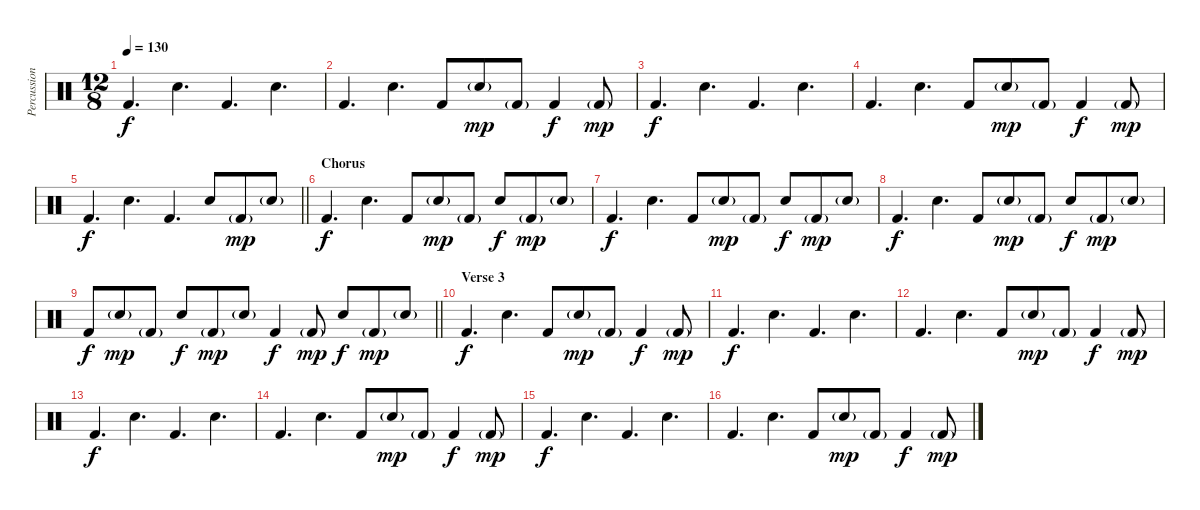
\track ("Percussion" "Percussion") {instrument percussion}
\staff {score}
\articulation defaults
\ts (12 8)
\tempo 130
\clef neutral
\ks c "Kick (hit) 2".4{d dy f} "Snare (hit) 2".4{d} "Kick (hit) 2".4{d} "Snare (hit) 2".4{d}
|
"Kick (hit) 2".4{d} "Snare (hit) 2".4{d} "Kick (hit) 2".8 "Snare (hit) 2"{g}.8{dy mp} "Kick (hit) 2"{g}.8 "Kick (hit) 2".4{dy f} "Kick (hit) 2"{g}.8{dy mp} |
"Kick (hit) 2".4{d dy f} "Snare (hit) 2".4{d} "Kick (hit) 2".4{d} "Snare (hit) 2".4{d} |
"Kick (hit) 2".4{d} "Snare (hit) 2".4{d} "Kick (hit) 2".8 "Snare (hit) 2"{g}.8{dy mp} "Kick (hit) 2"{g}.8 "Kick (hit) 2".4{dy f} "Kick (hit) 2"{g}.8{dy mp} |
\barLineRight lightlight "Kick (hit) 2".4{d dy f} "Snare (hit) 2".4{d} "Kick (hit) 2".4{d} "Snare (hit) 2".8 "Kick (hit) 2"{g}.8{dy mp} "Snare (hit) 2"{g}.8
|
\section ("" "Chorus")
"Kick (hit) 2".4{d dy f} "Snare (hit) 2".4{d} "Kick (hit) 2".8 "Snare (hit) 2"{g}.8{dy mp} "Kick (hit) 2"{g}.8 "Snare (hit) 2".8{dy f} "Kick (hit) 2"{g}.8{dy mp} "Snare (hit) 2"{g}.8 |
"Kick (hit) 2".4{d dy f} "Snare (hit) 2".4{d} "Kick (hit) 2".8 "Snare (hit) 2"{g}.8{dy mp} "Kick (hit) 2"{g}.8 "Snare (hit) 2".8{dy f} "Kick (hit) 2"{g}.8{dy mp} "Snare (hit) 2"{g}.8 |
"Kick (hit) 2".4{d dy f} "Snare (hit) 2".4{d} "Kick (hit) 2".8 "Snare (hit) 2"{g}.8{dy mp} "Kick (hit) 2"{g}.8 "Snare (hit) 2".8{dy f} "Kick (hit) 2"{g}.8{dy mp} "Snare (hit) 2"{g}.8 |
\barLineRight lightlight "Kick (hit) 2".8{dy f} "Snare (hit) 2"{g}.8{dy mp} "Kick (hit) 2"{g}.8 "Snare (hit) 2".8{dy f} "Kick (hit) 2"{g}.8{dy mp} "Snare (hit) 2"{g}.8 "Kick (hit) 2".4{dy f} "Kick (hit) 2"{g}.8{dy mp} "Snare (hit) 2".8{dy f} "Kick (hit) 2"{g}.8{dy mp} "Snare (hit) 2"{g}.8
|
\section ("" "Verse 3")
"Kick (hit) 2".4{d dy f} "Snare (hit) 2".4{d} "Kick (hit) 2".8 "Snare (hit) 2"{g}.8{dy mp} "Kick (hit) 2"{g}.8 "Kick (hit) 2".4{dy f} "Kick (hit) 2"{g}.8{dy mp} |
"Kick (hit) 2".4{d dy f} "Snare (hit) 2".4{d} "Kick (hit) 2".4{d} "Snare (hit) 2".4{d} |
"Kick (hit) 2".4{d} "Snare (hit) 2".4{d} "Kick (hit) 2".8 "Snare (hit) 2"{g}.8{dy mp} "Kick (hit) 2"{g}.8 "Kick (hit) 2".4{dy f} "Kick (hit) 2"{g}.8{dy mp} |
"Kick (hit) 2".4{d dy f} "Snare (hit) 2".4{d} "Kick (hit) 2".4{d} "Snare (hit) 2".4{d} |
"Kick (hit) 2".4{d} "Snare (hit) 2".4{d} "Kick (hit) 2".8 "Snare (hit) 2"{g}.8{dy mp} "Kick (hit) 2"{g}.8 "Kick (hit) 2".4{dy f} "Kick (hit) 2"{g}.8{dy mp} |
"Kick (hit) 2".4{d dy f} "Snare (hit) 2".4{d} "Kick (hit) 2".4{d} "Snare (hit) 2".4{d} |
"Kick (hit) 2".4{d} "Snare (hit) 2".4{d} "Kick (hit) 2".8 "Snare (hit) 2"{g}.8{dy mp} "Kick (hit) 2"{g}.8 "Kick (hit) 2".4{dy f} "Kick (hit) 2"{g}.8{dy mp}
